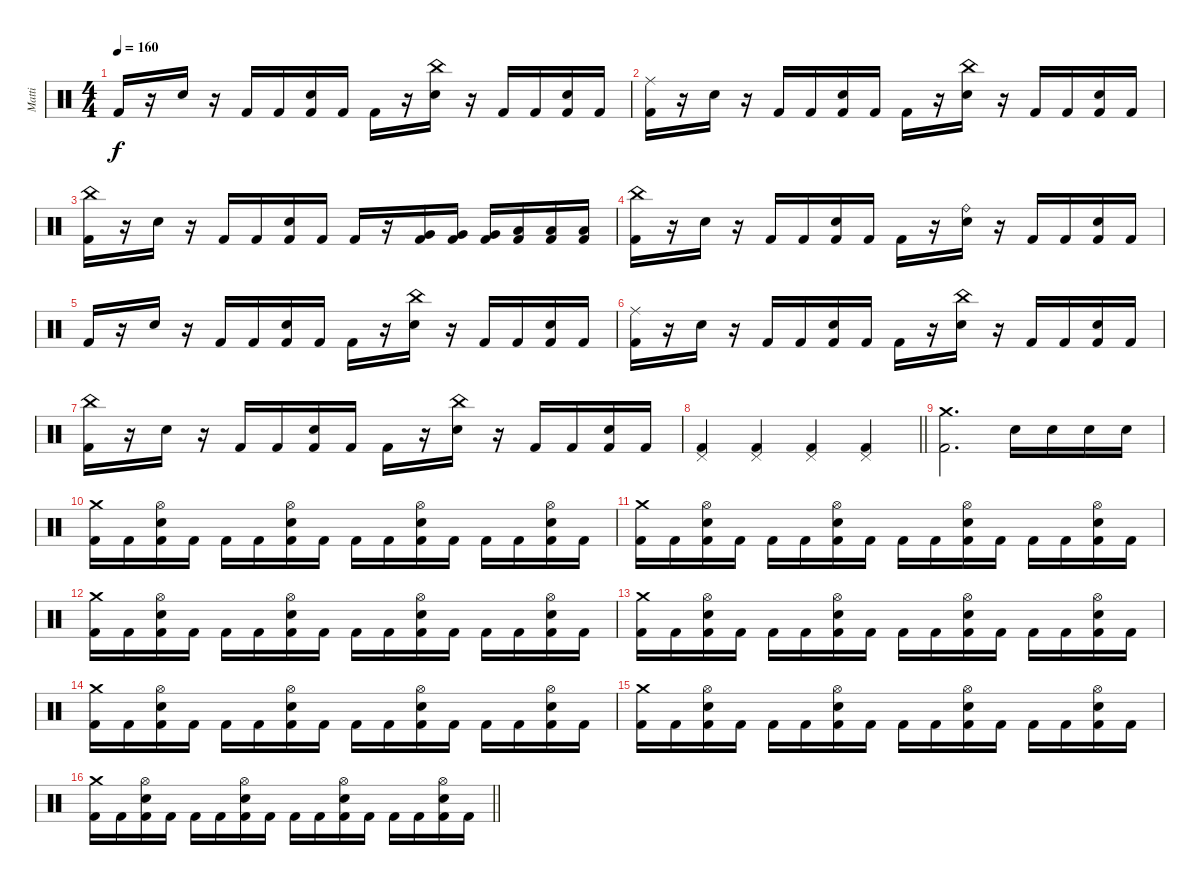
\track ("Matti" "Matti") {instrument percussion}
\staff {score}
\articulation defaults
\ts (4 4)
\tempo 160
\clef neutral
\ks c "Kick (hit) 2".16{dy f}
r.16 "Electric Snare (hit)".16 r.16 "Kick (hit) 2".16 "Kick (hit) 2".16 ("Electric Snare (hit)" "Kick (hit) 2").16 "Kick (hit) 2".16 "Kick (hit) 2".16 r.16 ("China (hit)" "Electric Snare (hit)").16 r.16 "Kick (hit) 2".16 "Kick (hit) 2".16 ("Electric Snare (hit)" "Kick (hit) 2").16 "Kick (hit) 2".16 |
("Ride (middle)" "Kick (hit) 2").16 r.16 "Electric Snare (hit)".16 r.16 "Kick (hit) 2".16 "Kick (hit) 2".16 ("Electric Snare (hit)" "Kick (hit) 2").16 "Kick (hit) 2".16 "Kick (hit) 2".16 r.16 ("China (hit)" "Electric Snare (hit)").16 r.16 "Kick (hit) 2".16 "Kick (hit) 2".16 ("Electric Snare (hit)" "Kick (hit) 2").16 "Kick (hit) 2".16 |
("China (hit)" "Kick (hit) 2").16 r.16 "Electric Snare (hit)".16 r.16 "Kick (hit) 2".16 "Kick (hit) 2".16 ("Electric Snare (hit)" "Kick (hit) 2").16 "Kick (hit) 2".16 "Kick (hit) 2".16 r.16 ("Very Low Tom (hit)" "Kick (hit) 2").16 ("Very Low Tom (hit)" "Kick (hit) 2").16 ("Very Low Tom (hit)" "Kick (hit) 2").16 ("Low Floor Tom (hit)" "Kick (hit) 2").16 ("Low Floor Tom (hit)" "Kick (hit) 2").16 ("Low Floor Tom (hit)" "Kick (hit) 2").16 |
("China (hit)" "Kick (hit) 2").16 r.16 "Electric Snare (hit)".16 r.16 "Kick (hit) 2".16 "Kick (hit) 2".16 ("Electric Snare (hit)" "Kick (hit) 2").16 "Kick (hit) 2".16 "Kick (hit) 2".16 r.16 ("Ride (bell)" "Electric Snare (hit)").16 r.16 "Kick (hit) 2".16 "Kick (hit) 2".16 ("Electric Snare (hit)" "Kick (hit) 2").16 "Kick (hit) 2".16 |
"Kick (hit) 2".16 r.16 "Electric Snare (hit)".16 r.16 "Kick (hit) 2".16 "Kick (hit) 2".16 ("Electric Snare (hit)" "Kick (hit) 2").16 "Kick (hit) 2".16 "Kick (hit) 2".16 r.16 ("China (hit)" "Electric Snare (hit)").16 r.16 "Kick (hit) 2".16 "Kick (hit) 2".16 ("Electric Snare (hit)" "Kick (hit) 2").16 "Kick (hit) 2".16 |
("Ride (middle)" "Kick (hit) 2").16 r.16 "Electric Snare (hit)".16 r.16 "Kick (hit) 2".16 "Kick (hit) 2".16 ("Electric Snare (hit)" "Kick (hit) 2").16 "Kick (hit) 2".16 "Kick (hit) 2".16 r.16 ("China (hit)" "Electric Snare (hit)").16 r.16 "Kick (hit) 2".16 "Kick (hit) 2".16 ("Electric Snare (hit)" "Kick (hit) 2").16 "Kick (hit) 2".16 |
("China (hit)" "Kick (hit) 2").16 r.16 "Electric Snare (hit)".16 r.16 "Kick (hit) 2".16 "Kick (hit) 2".16 ("Electric Snare (hit)" "Kick (hit) 2").16 "Kick (hit) 2".16 "Kick (hit) 2".16 r.16 ("China (hit)" "Electric Snare (hit)").16 r.16 "Kick (hit) 2".16 "Kick (hit) 2".16 ("Electric Snare (hit)" "Kick (hit) 2").16 "Kick (hit) 2".16 |
\barLineRight lightlight
("Pedal Hi-Hat (hit)" "Kick (hit) 2").4 ("Pedal Hi-Hat (hit)" "Kick (hit) 2").4 ("Pedal Hi-Hat (hit)" "Kick (hit) 2").4 ("Pedal Hi-Hat (hit)" "Kick (hit) 2").4 |
\section ("" "")
("Crash medium (hit)" "Kick (hit) 2").2{d} "Electric Snare (hit)".16 "Electric Snare (hit)".16 "Electric Snare (hit)".16 "Electric Snare (hit)".16 |
("Crash medium (hit)" "Kick (hit) 2").16 "Kick (hit) 2".16 ("Hi-Hat (open)" "Electric Snare (hit)" "Kick (hit) 2").16 "Kick (hit) 2".16 "Kick (hit) 2".16 "Kick (hit) 2".16 ("Hi-Hat (open)" "Electric Snare (hit)" "Kick (hit) 2").16 "Kick (hit) 2".16 "Kick (hit) 2".16 "Kick (hit) 2".16 ("Hi-Hat (open)" "Electric Snare (hit)" "Kick (hit) 2").16 "Kick (hit) 2".16 "Kick (hit) 2".16 "Kick (hit) 2".16 ("Hi-Hat (open)" "Electric Snare (hit)" "Kick (hit) 2").16 "Kick (hit) 2".16 |
("Crash medium (hit)" "Kick (hit) 2").16 "Kick (hit) 2".16 ("Hi-Hat (open)" "Electric Snare (hit)" "Kick (hit) 2").16 "Kick (hit) 2".16 "Kick (hit) 2".16 "Kick (hit) 2".16 ("Hi-Hat (open)" "Electric Snare (hit)" "Kick (hit) 2").16 "Kick (hit) 2".16 "Kick (hit) 2".16 "Kick (hit) 2".16 ("Hi-Hat (open)" "Electric Snare (hit)" "Kick (hit) 2").16 "Kick (hit) 2".16 "Kick (hit) 2".16 "Kick (hit) 2".16 ("Hi-Hat (open)" "Electric Snare (hit)" "Kick (hit) 2").16 "Kick (hit) 2".16 |
("Crash medium (hit)" "Kick (hit) 2").16 "Kick (hit) 2".16 ("Hi-Hat (open)" "Electric Snare (hit)" "Kick (hit) 2").16 "Kick (hit) 2".16 "Kick (hit) 2".16 "Kick (hit) 2".16 ("Hi-Hat (open)" "Electric Snare (hit)" "Kick (hit) 2").16 "Kick (hit) 2".16 "Kick (hit) 2".16 "Kick (hit) 2".16 ("Hi-Hat (open)" "Electric Snare (hit)" "Kick (hit) 2").16 "Kick (hit) 2".16 "Kick (hit) 2".16 "Kick (hit) 2".16 ("Hi-Hat (open)" "Electric Snare (hit)" "Kick (hit) 2").16 "Kick (hit) 2".16 |
("Crash medium (hit)" "Kick (hit) 2").16 "Kick (hit) 2".16 ("Hi-Hat (open)" "Electric Snare (hit)" "Kick (hit) 2").16 "Kick (hit) 2".16 "Kick (hit) 2".16 "Kick (hit) 2".16 ("Hi-Hat (open)" "Electric Snare (hit)" "Kick (hit) 2").16 "Kick (hit) 2".16 "Kick (hit) 2".16 "Kick (hit) 2".16 ("Hi-Hat (open)" "Electric Snare (hit)" "Kick (hit) 2").16 "Kick (hit) 2".16 "Kick (hit) 2".16 "Kick (hit) 2".16 ("Hi-Hat (open)" "Electric Snare (hit)" "Kick (hit) 2").16 "Kick (hit) 2".16 |
("Crash medium (hit)" "Kick (hit) 2").16 "Kick (hit) 2".16 ("Hi-Hat (open)" "Electric Snare (hit)" "Kick (hit) 2").16 "Kick (hit) 2".16 "Kick (hit) 2".16 "Kick (hit) 2".16 ("Hi-Hat (open)" "Electric Snare (hit)" "Kick (hit) 2").16 "Kick (hit) 2".16 "Kick (hit) 2".16 "Kick (hit) 2".16 ("Hi-Hat (open)" "Electric Snare (hit)" "Kick (hit) 2").16 "Kick (hit) 2".16 "Kick (hit) 2".16 "Kick (hit) 2".16 ("Hi-Hat (open)" "Electric Snare (hit)" "Kick (hit) 2").16 "Kick (hit) 2".16 |
("Crash medium (hit)" "Kick (hit) 2").16 "Kick (hit) 2".16 ("Hi-Hat (open)" "Electric Snare (hit)" "Kick (hit) 2").16 "Kick (hit) 2".16 "Kick (hit) 2".16 "Kick (hit) 2".16 ("Hi-Hat (open)" "Electric Snare (hit)" "Kick (hit) 2").16 "Kick (hit) 2".16 "Kick (hit) 2".16 "Kick (hit) 2".16 ("Hi-Hat (open)" "Electric Snare (hit)" "Kick (hit) 2").16 "Kick (hit) 2".16 "Kick (hit) 2".16 "Kick (hit) 2".16 ("Hi-Hat (open)" "Electric Snare (hit)" "Kick (hit) 2").16 "Kick (hit) 2".16 |
\barLineRight lightlight
("Crash medium (hit)" "Kick (hit) 2").16 "Kick (hit) 2".16 ("Hi-Hat (open)" "Electric Snare (hit)" "Kick (hit) 2").16 "Kick (hit) 2".16 "Kick (hit) 2".16 "Kick (hit) 2".16 ("Hi-Hat (open)" "Electric Snare (hit)" "Kick (hit) 2").16 "Kick (hit) 2".16 "Kick (hit) 2".16 "Kick (hit) 2".16 ("Hi-Hat (open)" "Electric Snare (hit)" "Kick (hit) 2").16 "Kick (hit) 2".16 "Kick (hit) 2".16 "Kick (hit) 2".16 ("Hi-Hat (open)" "Electric Snare (hit)" "Kick (hit) 2").16 "Kick (hit) 2".16
